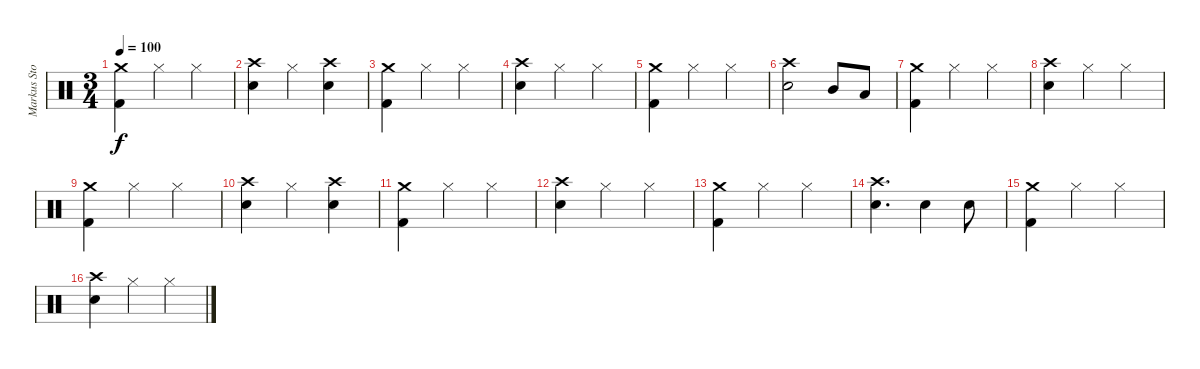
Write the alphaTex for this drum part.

\track ("Markus Stock" "Markus Sto") {instrument percussion}
\staff {score}
\articulation defaults
\ts (3 4)
\tempo 100
\clef neutral
\ks c
("Crash medium (hit)" "Kick (hit) 2").4{dy f} "Hi-Hat (closed)".4 "Hi-Hat (closed)".4 |
("Crash high (hit)" "Snare (hit) 2").4 "Hi-Hat (closed)".4 ("Crash high (hit)" "Snare (hit) 2").4 |
("Crash medium (hit)" "Kick (hit) 2").4 "Hi-Hat (closed)".4 "Hi-Hat (closed)".4 |
("Crash high (hit)" "Snare (hit) 2").4 "Hi-Hat (closed)".4 "Hi-Hat (closed)".4 |
("Crash medium (hit)" "Kick (hit) 2").4 "Hi-Hat (closed)".4 "Hi-Hat (closed)".4 |
("Crash high (hit)" "Snare (hit) 2").2 "Mid Tom (hit)".8 "Low Tom (hit)".8 |
("Crash medium (hit)" "Kick (hit) 2").4 "Hi-Hat (closed)".4 "Hi-Hat (closed)".4 |
("Crash high (hit)" "Snare (hit) 2").4 "Hi-Hat (closed)".4 "Hi-Hat (closed)".4 |
("Crash medium (hit)" "Kick (hit) 2").4 "Hi-Hat (closed)".4 "Hi-Hat (closed)".4 |
("Crash high (hit)" "Snare (hit) 2").4 "Hi-Hat (closed)".4 ("Crash high (hit)" "Snare (hit) 2").4 |
("Crash medium (hit)" "Kick (hit) 2").4 "Hi-Hat (closed)".4 "Hi-Hat (closed)".4 |
("Crash high (hit)" "Snare (hit) 2").4 "Hi-Hat (closed)".4 "Hi-Hat (closed)".4 |
("Crash medium (hit)" "Kick (hit) 2").4 "Hi-Hat (closed)".4 "Hi-Hat (closed)".4 |
("Crash high (hit)" "Snare (hit) 2").4{d} "Snare (hit) 2".4 "Snare (hit) 2".8 |
("Crash medium (hit)" "Kick (hit) 2").4 "Hi-Hat (closed)".4 "Hi-Hat (closed)".4 |
("Crash high (hit)" "Snare (hit) 2").4 "Hi-Hat (closed)".4 "Hi-Hat (closed)".4
